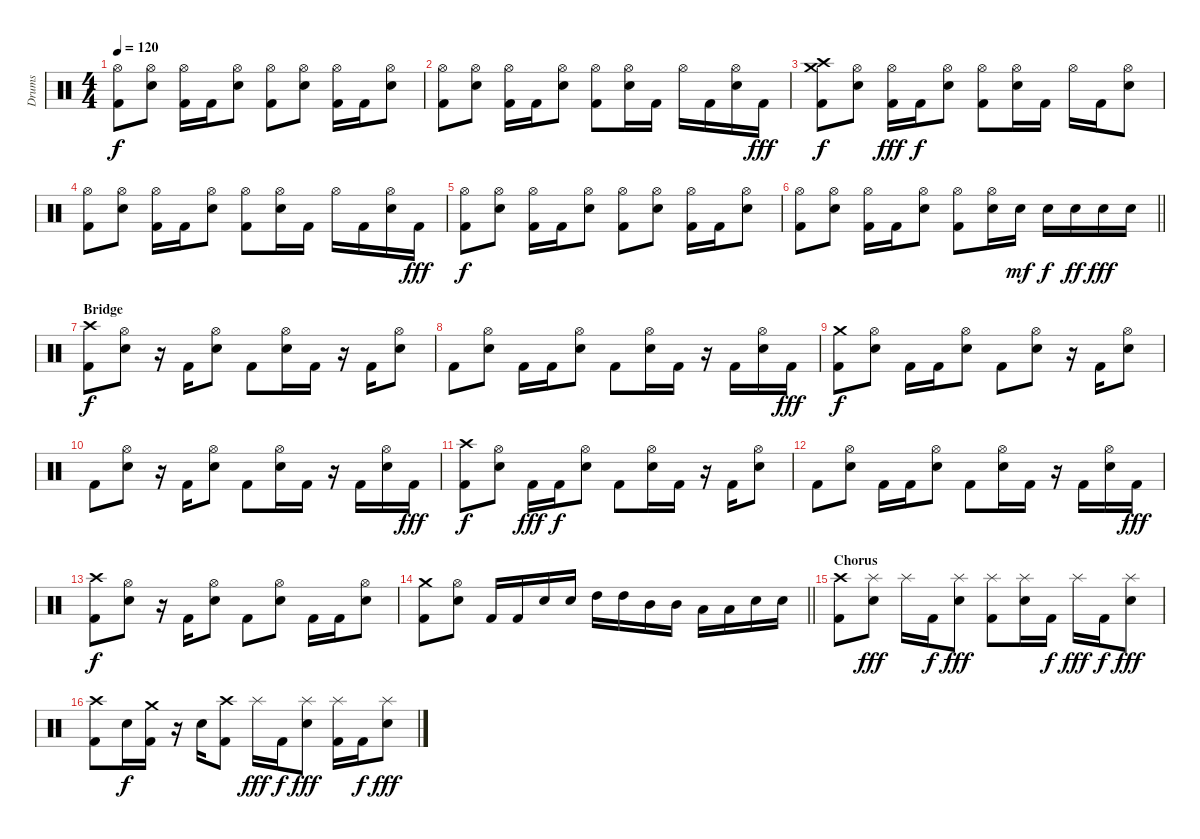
\track ("Drums" "Drums") {instrument percussion}
\staff {score}
\articulation defaults
\ts (4 4)
\tempo 120
\clef neutral
\ks c
("Hi-Hat (open)" "Kick (hit) 2").8{dy f} ("Hi-Hat (open)" "Snare (hit) 2").8 ("Hi-Hat (open)" "Kick (hit) 2").16 "Kick (hit) 2".16 ("Hi-Hat (open)" "Snare (hit) 2").8 ("Hi-Hat (open)" "Kick (hit) 2").8 ("Hi-Hat (open)" "Snare (hit) 2").8 ("Hi-Hat (open)" "Kick (hit) 2").16 "Kick (hit) 2".16 ("Hi-Hat (open)" "Snare (hit) 2").8 |
("Hi-Hat (open)" "Kick (hit) 2").8 ("Hi-Hat (open)" "Snare (hit) 2").8 ("Hi-Hat (open)" "Kick (hit) 2").16 "Kick (hit) 2".16 ("Hi-Hat (open)" "Snare (hit) 2").8 ("Hi-Hat (open)" "Kick (hit) 2").8 ("Hi-Hat (open)" "Snare (hit) 2").16 "Kick (hit) 2".16 "Hi-Hat (open)".16 "Kick (hit) 2".16 ("Hi-Hat (open)" "Snare (hit) 2").16 "Kick (hit) 2".16{dy fff} |
("Crash high (hit)" "Crash medium (hit)" "Kick (hit) 2").8{dy f} ("Hi-Hat (open)" "Snare (hit) 2").8 ("Hi-Hat (open)" "Kick (hit) 2").16{dy fff} "Kick (hit) 2".16{dy f} ("Hi-Hat (open)" "Snare (hit) 2").8 ("Hi-Hat (open)" "Kick (hit) 2").8 ("Hi-Hat (open)" "Snare (hit) 2").16 "Kick (hit) 2".16 "Hi-Hat (open)".16 "Kick (hit) 2".16 ("Hi-Hat (open)" "Snare (hit) 2").8 |
("Hi-Hat (open)" "Kick (hit) 2").8 ("Hi-Hat (open)" "Snare (hit) 2").8 ("Hi-Hat (open)" "Kick (hit) 2").16 "Kick (hit) 2".16 ("Hi-Hat (open)" "Snare (hit) 2").8 ("Hi-Hat (open)" "Kick (hit) 2").8 ("Hi-Hat (open)" "Snare (hit) 2").16 "Kick (hit) 2".16 "Hi-Hat (open)".16 "Kick (hit) 2".16 ("Hi-Hat (open)" "Snare (hit) 2").16 "Kick (hit) 2".16{dy fff} |
("Hi-Hat (open)" "Kick (hit) 2").8{dy f} ("Hi-Hat (open)" "Snare (hit) 2").8 ("Hi-Hat (open)" "Kick (hit) 2").16 "Kick (hit) 2".16 ("Hi-Hat (open)" "Snare (hit) 2").8 ("Hi-Hat (open)" "Kick (hit) 2").8 ("Hi-Hat (open)" "Snare (hit) 2").8 ("Hi-Hat (open)" "Kick (hit) 2").16 "Kick (hit) 2".16 ("Hi-Hat (open)" "Snare (hit) 2").8 |
\barLineRight lightlight
("Hi-Hat (open)" "Kick (hit) 2").8 ("Hi-Hat (open)" "Snare (hit) 2").8 ("Hi-Hat (open)" "Kick (hit) 2").16 "Kick (hit) 2".16 ("Hi-Hat (open)" "Snare (hit) 2").8 ("Hi-Hat (open)" "Kick (hit) 2").8 ("Hi-Hat (open)" "Snare (hit) 2").16 "Snare (hit) 2".16{dy mf} "Snare (hit) 2".16{dy f} "Snare (hit) 2".16{dy ff} "Snare (hit) 2".16{dy fff} "Snare (hit) 2".16 |
\section ("" "Bridge")
("Crash high (hit)" "Kick (hit) 2").8{dy f} ("Hi-Hat (open)" "Snare (hit) 2").8 r.16 "Kick (hit) 2".16 ("Hi-Hat (open)" "Snare (hit) 2").8 "Kick (hit) 2".8 ("Hi-Hat (open)" "Snare (hit) 2").16 "Kick (hit) 2".16 r.16 "Kick (hit) 2".16 ("Hi-Hat (open)" "Snare (hit) 2").8 |
"Kick (hit) 2".8 ("Hi-Hat (open)" "Snare (hit) 2").8 "Kick (hit) 2".16 "Kick (hit) 2".16 ("Hi-Hat (open)" "Snare (hit) 2").8 "Kick (hit) 2".8 ("Hi-Hat (open)" "Snare (hit) 2").16 "Kick (hit) 2".16 r.16 "Kick (hit) 2".16 ("Hi-Hat (open)" "Snare (hit) 2").16 "Kick (hit) 2".16{dy fff} |
("Crash medium (hit)" "Kick (hit) 2").8{dy f} ("Hi-Hat (open)" "Snare (hit) 2").8 "Kick (hit) 2".16 "Kick (hit) 2".16 ("Hi-Hat (open)" "Snare (hit) 2").8 "Kick (hit) 2".8 ("Hi-Hat (open)" "Snare (hit) 2").8 r.16 "Kick (hit) 2".16 ("Hi-Hat (open)" "Snare (hit) 2").8 |
"Kick (hit) 2".8 ("Hi-Hat (open)" "Snare (hit) 2").8 r.16 "Kick (hit) 2".16 ("Hi-Hat (open)" "Snare (hit) 2").8 "Kick (hit) 2".8 ("Hi-Hat (open)" "Snare (hit) 2").16 "Kick (hit) 2".16 r.16 "Kick (hit) 2".16 ("Hi-Hat (open)" "Snare (hit) 2").16 "Kick (hit) 2".16{dy fff} |
("Crash high (hit)" "Kick (hit) 2").8{dy f} ("Hi-Hat (open)" "Snare (hit) 2").8 "Kick (hit) 2".16{dy fff} "Kick (hit) 2".16{dy f} ("Hi-Hat (open)" "Snare (hit) 2").8 "Kick (hit) 2".8 ("Hi-Hat (open)" "Snare (hit) 2").16 "Kick (hit) 2".16 r.16 "Kick (hit) 2".16 ("Hi-Hat (open)" "Snare (hit) 2").8 |
"Kick (hit) 2".8 ("Hi-Hat (open)" "Snare (hit) 2").8 "Kick (hit) 2".16 "Kick (hit) 2".16 ("Hi-Hat (open)" "Snare (hit) 2").8 "Kick (hit) 2".8 ("Hi-Hat (open)" "Snare (hit) 2").16 "Kick (hit) 2".16 r.16 "Kick (hit) 2".16 ("Hi-Hat (open)" "Snare (hit) 2").16 "Kick (hit) 2".16{dy fff} |
("Crash high (hit)" "Kick (hit) 2").8{dy f} ("Hi-Hat (open)" "Snare (hit) 2").8 r.16 "Kick (hit) 2".16 ("Hi-Hat (open)" "Snare (hit) 2").8 "Kick (hit) 2".8 ("Hi-Hat (open)" "Snare (hit) 2").8 "Kick (hit) 2".16 "Kick (hit) 2".16 ("Hi-Hat (open)" "Snare (hit) 2").8 |
\barLineRight lightlight
("Crash medium (hit)" "Kick (hit) 2").8 ("Hi-Hat (open)" "Snare (hit) 2").8 "Kick (hit) 2".16 "Kick (hit) 2".16 "Snare (hit) 2".16 "Snare (hit) 2".16 "High Tom (hit)".16 "High Tom (hit)".16 "Mid Tom (hit)".16 "Mid Tom (hit)".16 "Low Tom (hit)".16 "Low Tom (hit)".16 "Snare (hit) 2".16 "Snare (hit) 2".16 |
\section ("" "Chorus")
("Crash high (hit)" "Kick (hit) 2").8 ("Splash (hit)" "Snare (hit) 2").8{dy fff} "Splash (hit)".16 "Kick (hit) 2".16{dy f} ("Splash (hit)" "Snare (hit) 2").8{dy fff} ("Splash (hit)" "Kick (hit) 2").8 ("Splash (hit)" "Snare (hit) 2").16 "Kick (hit) 2".16{dy f} "Splash (hit)".16{dy fff} "Kick (hit) 2".16{dy f} ("Splash (hit)" "Snare (hit) 2").8{dy fff} |
("Crash high (hit)" "Kick (hit) 2").8 "Snare (hit) 2".16{dy f} ("Crash medium (hit)" "Kick (hit) 2").16 r.16 "Snare (hit) 2".16 ("Crash high (hit)" "Kick (hit) 2").8 "Splash (hit)".16{dy fff} "Kick (hit) 2".16{dy f} ("Splash (hit)" "Snare (hit) 2").8{dy fff} ("Splash (hit)" "Kick (hit) 2").16 "Kick (hit) 2".16{dy f} ("Splash (hit)" "Snare (hit) 2").8{dy fff}
